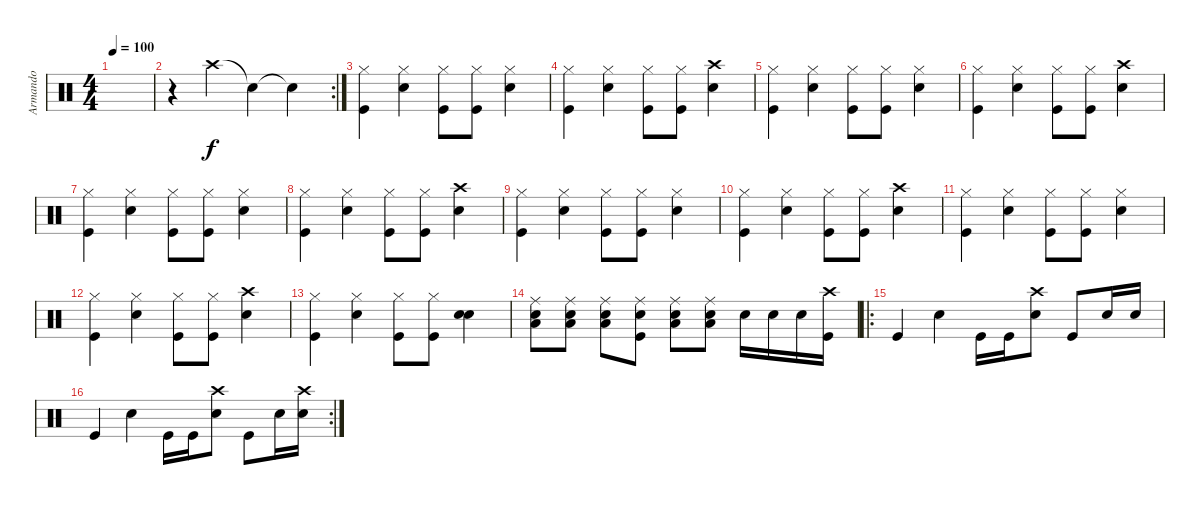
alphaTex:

\track ("Armando" "Armando") {instrument percussion}
\staff {score}
\articulation defaults
\ts (4 4)
\tempo 100
\clef neutral
\ks c
|
\rc 2
r.4 "Crash high (hit)".4 "Snare (hit)"{t}.4 "Snare (hit)"{t}.4 |
("Hi-Hat (closed)" "Kick (hit)").4 ("Hi-Hat (closed)" "Snare (hit) 2").4 ("Hi-Hat (closed)" "Kick (hit)").8 ("Hi-Hat (closed)" "Kick (hit)").8 ("Hi-Hat (closed)" "Snare (hit) 2").4 |
("Hi-Hat (closed)" "Kick (hit)").4 ("Hi-Hat (closed)" "Snare (hit) 2").4 ("Hi-Hat (closed)" "Kick (hit)").8 ("Hi-Hat (closed)" "Kick (hit)").8 ("Crash high (hit)" "Snare (hit) 2").4 |
("Hi-Hat (closed)" "Kick (hit)").4 ("Hi-Hat (closed)" "Snare (hit) 2").4 ("Hi-Hat (closed)" "Kick (hit)").8 ("Hi-Hat (closed)" "Kick (hit)").8 ("Hi-Hat (closed)" "Snare (hit) 2").4 |
("Hi-Hat (closed)" "Kick (hit)").4 ("Hi-Hat (closed)" "Snare (hit) 2").4 ("Hi-Hat (closed)" "Kick (hit)").8 ("Hi-Hat (closed)" "Kick (hit)").8 ("Crash high (hit)" "Snare (hit) 2").4 |
("Hi-Hat (closed)" "Kick (hit)").4 ("Hi-Hat (closed)" "Snare (hit) 2").4 ("Hi-Hat (closed)" "Kick (hit)").8 ("Hi-Hat (closed)" "Kick (hit)").8 ("Hi-Hat (closed)" "Snare (hit) 2").4 |
("Hi-Hat (closed)" "Kick (hit)").4 ("Hi-Hat (closed)" "Snare (hit) 2").4 ("Hi-Hat (closed)" "Kick (hit)").8 ("Hi-Hat (closed)" "Kick (hit)").8 ("Crash high (hit)" "Snare (hit) 2").4 |
("Hi-Hat (closed)" "Kick (hit)").4 ("Hi-Hat (closed)" "Snare (hit) 2").4 ("Hi-Hat (closed)" "Kick (hit)").8 ("Hi-Hat (closed)" "Kick (hit)").8 ("Hi-Hat (closed)" "Snare (hit) 2").4 |
("Hi-Hat (closed)" "Kick (hit)").4 ("Hi-Hat (closed)" "Snare (hit) 2").4 ("Hi-Hat (closed)" "Kick (hit)").8 ("Hi-Hat (closed)" "Kick (hit)").8 ("Crash high (hit)" "Snare (hit) 2").4 |
("Hi-Hat (closed)" "Kick (hit)").4 ("Hi-Hat (closed)" "Snare (hit) 2").4 ("Hi-Hat (closed)" "Kick (hit)").8 ("Hi-Hat (closed)" "Kick (hit)").8 ("Hi-Hat (closed)" "Snare (hit) 2").4 |
("Hi-Hat (closed)" "Kick (hit)").4 ("Hi-Hat (closed)" "Snare (hit) 2").4 ("Hi-Hat (closed)" "Kick (hit)").8 ("Hi-Hat (closed)" "Kick (hit)").8 ("Crash high (hit)" "Snare (hit) 2").4 |
("Hi-Hat (closed)" "Kick (hit)").4 ("Hi-Hat (closed)" "Snare (hit) 2").4 ("Hi-Hat (closed)" "Kick (hit)").8 ("Hi-Hat (closed)" "Kick (hit)").8 ("Snare (hit)" "Snare (hit) 2").4 |
("Ride (middle)" "Snare (hit) 2" "Low Tom (hit)").8 ("Ride (middle)" "Snare (hit) 2" "Low Tom (hit)").8 ("Ride (middle)" "Snare (hit) 2" "Low Tom (hit)").8 ("Ride (middle)" "Snare (hit) 2" "Kick (hit)").8 ("Ride (middle)" "Snare (hit) 2" "Low Tom (hit)").8 ("Ride (middle)" "Snare (hit) 2" "Low Tom (hit)").8 "Snare (hit) 2".16 "Snare (hit) 2".16 "Snare (hit) 2".16 ("Crash high (hit)" "Kick (hit)").16 |
\ro "Kick (hit)".4 "Snare (hit) 2".4 "Kick (hit)".16 "Kick (hit)".16
("Crash high (hit)" "Snare (hit) 2").8 "Kick (hit)".8 "Snare (hit) 2".16 "Snare (hit) 2".16 |
\rc 2 "Kick (hit)".4 "Snare (hit) 2".4 "Kick (hit)".16 "Kick (hit)".16
("Crash high (hit)" "Snare (hit) 2").8 "Kick (hit)".8 "Snare (hit) 2".16 ("Crash high (hit)" "Snare (hit) 2").16
